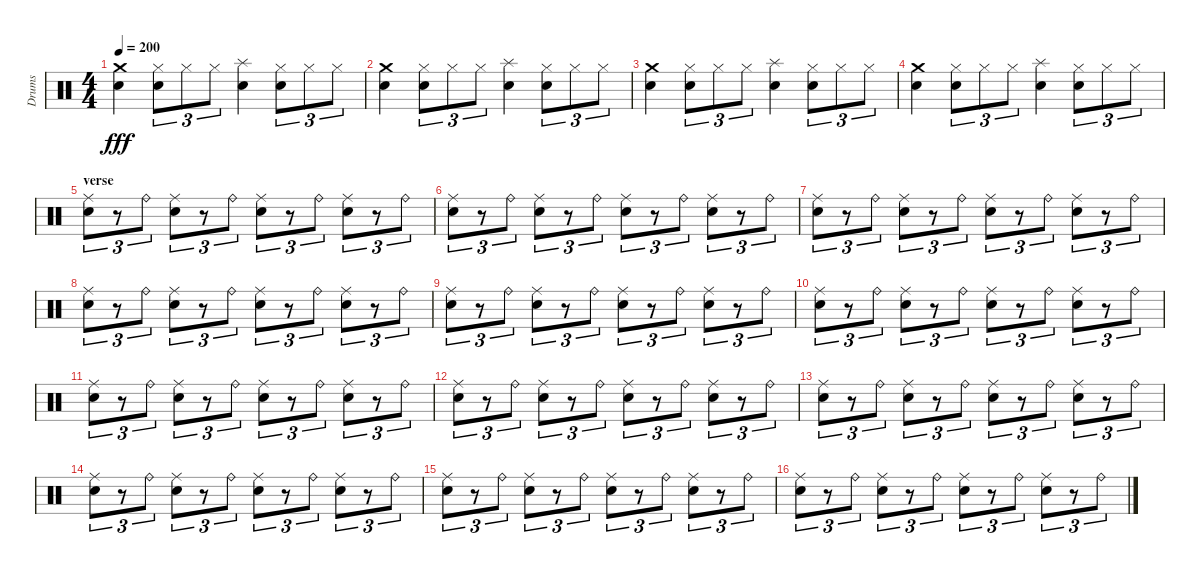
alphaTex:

\track ("Drums" "Drums") {instrument percussion}
\staff {score}
\articulation defaults
\ts (4 4)
\tempo 200
\clef neutral
\ks c
("Electric Snare (hit)" "Crash medium (hit)").4{dy fff} ("Hi-Hat (closed)" "Electric Snare (hit)").8{tu (3 2)} "Hi-Hat (closed)".8{tu (3 2)} "Hi-Hat (closed)".8{tu (3 2)} ("Electric Snare (hit)" "Splash (hit)").4 ("Hi-Hat (closed)" "Electric Snare (hit)").8{tu (3 2)} "Hi-Hat (closed)".8{tu (3 2)} "Hi-Hat (closed)".8{tu (3 2)} |
("Electric Snare (hit)" "Crash medium (hit)").4 ("Hi-Hat (closed)" "Electric Snare (hit)").8{tu (3 2)} "Hi-Hat (closed)".8{tu (3 2)} "Hi-Hat (closed)".8{tu (3 2)} ("Electric Snare (hit)" "Splash (hit)").4 ("Hi-Hat (closed)" "Electric Snare (hit)").8{tu (3 2)} "Hi-Hat (closed)".8{tu (3 2)} "Hi-Hat (closed)".8{tu (3 2)} |
("Electric Snare (hit)" "Crash medium (hit)").4 ("Hi-Hat (closed)" "Electric Snare (hit)").8{tu (3 2)} "Hi-Hat (closed)".8{tu (3 2)} "Hi-Hat (closed)".8{tu (3 2)} ("Electric Snare (hit)" "Splash (hit)").4 ("Hi-Hat (closed)" "Electric Snare (hit)").8{tu (3 2)} "Hi-Hat (closed)".8{tu (3 2)} "Hi-Hat (closed)".8{tu (3 2)} |
("Electric Snare (hit)" "Crash medium (hit)").4 ("Hi-Hat (closed)" "Electric Snare (hit)").8{tu (3 2)} "Hi-Hat (closed)".8{tu (3 2)} "Hi-Hat (closed)".8{tu (3 2)} ("Electric Snare (hit)" "Splash (hit)").4 ("Hi-Hat (closed)" "Electric Snare (hit)").8{tu (3 2)} "Hi-Hat (closed)".8{tu (3 2)} "Hi-Hat (closed)".8{tu (3 2)} |
\section ("" "verse")
("Electric Snare (hit)" "Ride (middle)").8{tu (3 2)} r.8{tu (3 2)} "Ride (bell)".8{tu (3 2)} ("Electric Snare (hit)" "Ride (middle)").8{tu (3 2)} r.8{tu (3 2)} "Ride (bell)".8{tu (3 2)} ("Electric Snare (hit)" "Ride (middle)").8{tu (3 2)} r.8{tu (3 2)} "Ride (bell)".8{tu (3 2)} ("Electric Snare (hit)" "Ride (middle)").8{tu (3 2)} r.8{tu (3 2)} "Ride (bell)".8{tu (3 2)} |
("Electric Snare (hit)" "Ride (middle)").8{tu (3 2)} r.8{tu (3 2)} "Ride (bell)".8{tu (3 2)} ("Electric Snare (hit)" "Ride (middle)").8{tu (3 2)} r.8{tu (3 2)} "Ride (bell)".8{tu (3 2)} ("Electric Snare (hit)" "Ride (middle)").8{tu (3 2)} r.8{tu (3 2)} "Ride (bell)".8{tu (3 2)} ("Electric Snare (hit)" "Ride (middle)").8{tu (3 2)} r.8{tu (3 2)} "Ride (bell)".8{tu (3 2)} |
("Electric Snare (hit)" "Ride (middle)").8{tu (3 2)} r.8{tu (3 2)} "Ride (bell)".8{tu (3 2)} ("Electric Snare (hit)" "Ride (middle)").8{tu (3 2)} r.8{tu (3 2)} "Ride (bell)".8{tu (3 2)} ("Electric Snare (hit)" "Ride (middle)").8{tu (3 2)} r.8{tu (3 2)} "Ride (bell)".8{tu (3 2)} ("Electric Snare (hit)" "Ride (middle)").8{tu (3 2)} r.8{tu (3 2)} "Ride (bell)".8{tu (3 2)} |
("Electric Snare (hit)" "Ride (middle)").8{tu (3 2)} r.8{tu (3 2)} "Ride (bell)".8{tu (3 2)} ("Electric Snare (hit)" "Ride (middle)").8{tu (3 2)} r.8{tu (3 2)} "Ride (bell)".8{tu (3 2)} ("Electric Snare (hit)" "Ride (middle)").8{tu (3 2)} r.8{tu (3 2)} "Ride (bell)".8{tu (3 2)} ("Electric Snare (hit)" "Ride (middle)").8{tu (3 2)} r.8{tu (3 2)} "Ride (bell)".8{tu (3 2)} |
("Electric Snare (hit)" "Ride (middle)").8{tu (3 2)} r.8{tu (3 2)} "Ride (bell)".8{tu (3 2)} ("Electric Snare (hit)" "Ride (middle)").8{tu (3 2)} r.8{tu (3 2)} "Ride (bell)".8{tu (3 2)} ("Electric Snare (hit)" "Ride (middle)").8{tu (3 2)} r.8{tu (3 2)} "Ride (bell)".8{tu (3 2)} ("Electric Snare (hit)" "Ride (middle)").8{tu (3 2)} r.8{tu (3 2)} "Ride (bell)".8{tu (3 2)} |
("Electric Snare (hit)" "Ride (middle)").8{tu (3 2)} r.8{tu (3 2)} "Ride (bell)".8{tu (3 2)} ("Electric Snare (hit)" "Ride (middle)").8{tu (3 2)} r.8{tu (3 2)} "Ride (bell)".8{tu (3 2)} ("Electric Snare (hit)" "Ride (middle)").8{tu (3 2)} r.8{tu (3 2)} "Ride (bell)".8{tu (3 2)} ("Electric Snare (hit)" "Ride (middle)").8{tu (3 2)} r.8{tu (3 2)} "Ride (bell)".8{tu (3 2)} |
("Electric Snare (hit)" "Ride (middle)").8{tu (3 2)} r.8{tu (3 2)} "Ride (bell)".8{tu (3 2)} ("Electric Snare (hit)" "Ride (middle)").8{tu (3 2)} r.8{tu (3 2)} "Ride (bell)".8{tu (3 2)} ("Electric Snare (hit)" "Ride (middle)").8{tu (3 2)} r.8{tu (3 2)} "Ride (bell)".8{tu (3 2)} ("Electric Snare (hit)" "Ride (middle)").8{tu (3 2)} r.8{tu (3 2)} "Ride (bell)".8{tu (3 2)} |
("Electric Snare (hit)" "Ride (middle)").8{tu (3 2)} r.8{tu (3 2)} "Ride (bell)".8{tu (3 2)} ("Electric Snare (hit)" "Ride (middle)").8{tu (3 2)} r.8{tu (3 2)} "Ride (bell)".8{tu (3 2)} ("Electric Snare (hit)" "Ride (middle)").8{tu (3 2)} r.8{tu (3 2)} "Ride (bell)".8{tu (3 2)} ("Electric Snare (hit)" "Ride (middle)").8{tu (3 2)} r.8{tu (3 2)} "Ride (bell)".8{tu (3 2)} |
("Electric Snare (hit)" "Ride (middle)").8{tu (3 2)} r.8{tu (3 2)} "Ride (bell)".8{tu (3 2)} ("Electric Snare (hit)" "Ride (middle)").8{tu (3 2)} r.8{tu (3 2)} "Ride (bell)".8{tu (3 2)} ("Electric Snare (hit)" "Ride (middle)").8{tu (3 2)} r.8{tu (3 2)} "Ride (bell)".8{tu (3 2)} ("Electric Snare (hit)" "Ride (middle)").8{tu (3 2)} r.8{tu (3 2)} "Ride (bell)".8{tu (3 2)} |
("Electric Snare (hit)" "Ride (middle)").8{tu (3 2)} r.8{tu (3 2)} "Ride (bell)".8{tu (3 2)} ("Electric Snare (hit)" "Ride (middle)").8{tu (3 2)} r.8{tu (3 2)} "Ride (bell)".8{tu (3 2)} ("Electric Snare (hit)" "Ride (middle)").8{tu (3 2)} r.8{tu (3 2)} "Ride (bell)".8{tu (3 2)} ("Electric Snare (hit)" "Ride (middle)").8{tu (3 2)} r.8{tu (3 2)} "Ride (bell)".8{tu (3 2)} |
("Electric Snare (hit)" "Ride (middle)").8{tu (3 2)} r.8{tu (3 2)} "Ride (bell)".8{tu (3 2)} ("Electric Snare (hit)" "Ride (middle)").8{tu (3 2)} r.8{tu (3 2)} "Ride (bell)".8{tu (3 2)} ("Electric Snare (hit)" "Ride (middle)").8{tu (3 2)} r.8{tu (3 2)} "Ride (bell)".8{tu (3 2)} ("Electric Snare (hit)" "Ride (middle)").8{tu (3 2)} r.8{tu (3 2)} "Ride (bell)".8{tu (3 2)} |
("Electric Snare (hit)" "Ride (middle)").8{tu (3 2)} r.8{tu (3 2)} "Ride (bell)".8{tu (3 2)} ("Electric Snare (hit)" "Ride (middle)").8{tu (3 2)} r.8{tu (3 2)} "Ride (bell)".8{tu (3 2)} ("Electric Snare (hit)" "Ride (middle)").8{tu (3 2)} r.8{tu (3 2)} "Ride (bell)".8{tu (3 2)} ("Electric Snare (hit)" "Ride (middle)").8{tu (3 2)} r.8{tu (3 2)} "Ride (bell)".8{tu (3 2)}
